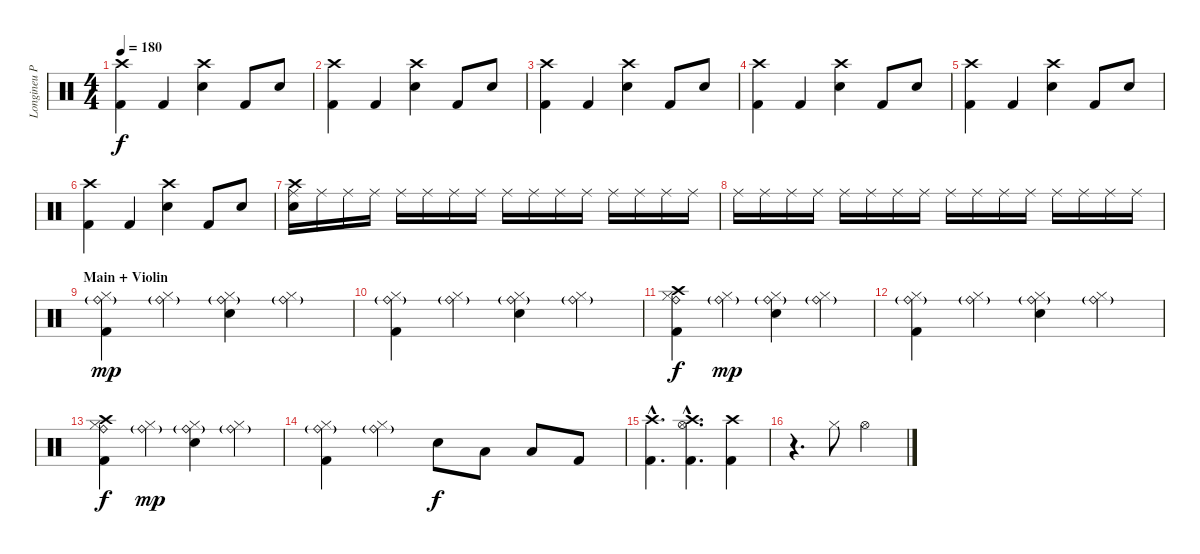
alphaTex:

\track ("Longineu Parsons III (Drums)" "Longineu P") {instrument percussion}
\staff {score}
\articulation defaults
\ts (4 4)
\tempo 180
\clef neutral
\ks c
("Kick (hit) 2" "Crash high (hit)").4{dy f} "Kick (hit) 2".4 ("Snare (hit) 2" "Crash high (hit)").4 "Kick (hit) 2".8 "Snare (hit) 2".8 |
("Kick (hit) 2" "Crash high (hit)").4 "Kick (hit) 2".4 ("Snare (hit) 2" "Crash high (hit)").4 "Kick (hit) 2".8 "Snare (hit) 2".8 |
("Kick (hit) 2" "Crash high (hit)").4 "Kick (hit) 2".4 ("Snare (hit) 2" "Crash high (hit)").4 "Kick (hit) 2".8 "Snare (hit) 2".8 |
("Kick (hit) 2" "Crash high (hit)").4 "Kick (hit) 2".4 ("Snare (hit) 2" "Crash high (hit)").4 "Kick (hit) 2".8 "Snare (hit) 2".8 |
("Kick (hit) 2" "Crash high (hit)").4 "Kick (hit) 2".4 ("Snare (hit) 2" "Crash high (hit)").4 "Kick (hit) 2".8 "Snare (hit) 2".8 |
("Kick (hit) 2" "Crash high (hit)").4 "Kick (hit) 2".4 ("Snare (hit) 2" "Crash high (hit)").4 "Kick (hit) 2".8 "Snare (hit) 2".8 |
("Crash high (hit)" "Snare (hit) 2" "Ride (middle)").16{volume 0} "Ride (middle)".16 "Ride (middle)".16 "Ride (middle)".16 "Ride (middle)".16 "Ride (middle)".16 "Ride (middle)".16 "Ride (middle)".16 "Ride (middle)".16 "Ride (middle)".16 "Ride (middle)".16 "Ride (middle)".16 "Ride (middle)".16 "Ride (middle)".16 "Ride (middle)".16 "Ride (middle)".16 |
"Ride (middle)".16 "Ride (middle)".16 "Ride (middle)".16 "Ride (middle)".16 "Ride (middle)".16 "Ride (middle)".16 "Ride (middle)".16 "Ride (middle)".16 "Ride (middle)".16 "Ride (middle)".16 "Ride (middle)".16 "Ride (middle)".16 "Ride (middle)".16 "Ride (middle)".16 "Ride (middle)".16 "Ride (middle)".16 |
\section ("" "Main + Violin")
("Ride (bell)"{g} "Kick (hit) 2" "Hi-Hat (closed)").4{dy mp volume 13} ("Ride (bell)"{g} "Hi-Hat (closed)").4 ("Ride (bell)"{g} "Snare (hit) 2" "Hi-Hat (closed)").4 ("Ride (bell)"{g} "Hi-Hat (closed)").4 |
("Ride (bell)"{g} "Kick (hit) 2" "Hi-Hat (closed)").4 ("Ride (bell)"{g} "Hi-Hat (closed)").4 ("Ride (bell)"{g} "Snare (hit) 2" "Hi-Hat (closed)").4 ("Ride (bell)"{g} "Hi-Hat (closed)").4 |
("Ride (bell)" "Crash high (hit)" "Kick (hit) 2" "Hi-Hat (closed)").4{dy f} ("Ride (bell)"{g} "Hi-Hat (closed)").4{dy mp} ("Ride (bell)"{g} "Snare (hit) 2" "Hi-Hat (closed)").4 ("Ride (bell)"{g} "Hi-Hat (closed)").4 |
("Ride (bell)"{g} "Kick (hit) 2" "Hi-Hat (closed)").4 ("Ride (bell)"{g} "Hi-Hat (closed)").4 ("Ride (bell)"{g} "Snare (hit) 2" "Hi-Hat (closed)").4 ("Ride (bell)"{g} "Hi-Hat (closed)").4 |
("Ride (bell)" "Crash high (hit)" "Kick (hit) 2" "Hi-Hat (closed)").4{dy f} ("Ride (bell)"{g} "Hi-Hat (closed)").4{dy mp} ("Ride (bell)"{g} "Snare (hit) 2" "Hi-Hat (closed)").4 ("Ride (bell)"{g} "Hi-Hat (closed)").4 |
("Ride (bell)"{g} "Kick (hit) 2" "Hi-Hat (closed)").4 ("Ride (bell)"{g} "Hi-Hat (closed)").4 "Snare (hit) 2".8{dy f} "Low Tom (hit)".8 "Low Floor Tom (hit)".8 "Kick (hit) 2".8 |
("Kick (hit) 2"{hac} "Crash high (hit)"{hac}).4{d} ("Hi-Hat (open)"{hac} "Kick (hit) 2"{hac} "Crash high (hit)"{hac}).4{d} ("Kick (hit) 2" "Crash high (hit)").4 |
r.4{d} "Hi-Hat (closed)".8 "Hi-Hat (open)".2
